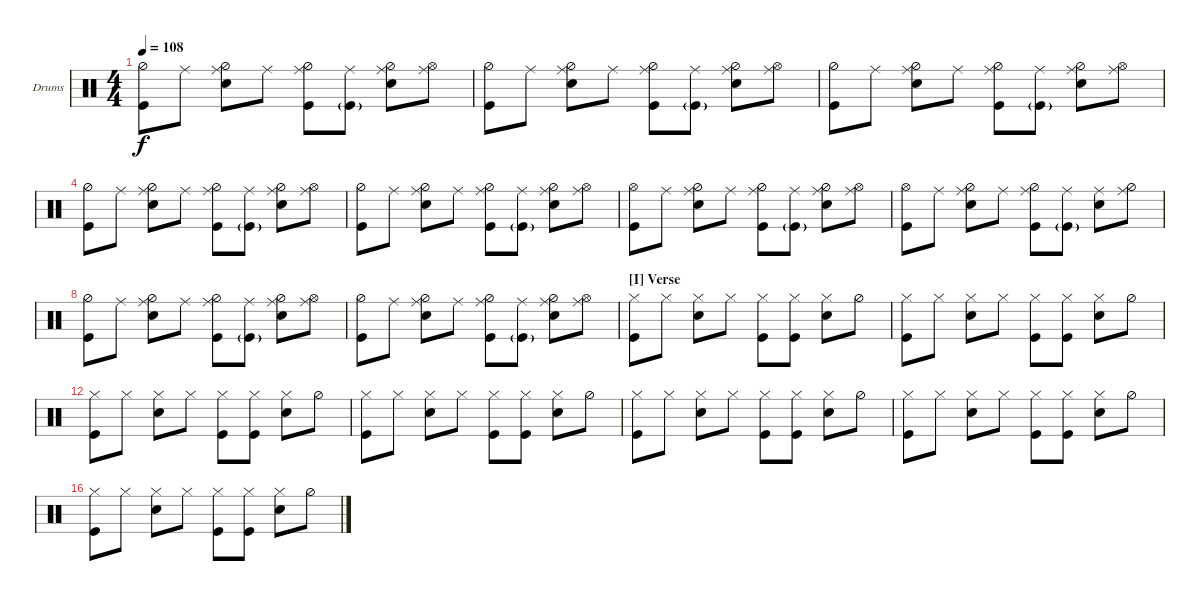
\defaultSystemsLayout 4
\bracketExtendMode nobrackets
\firstSystemTrackNameOrientation horizontal
\otherSystemsTrackNameOrientation horizontal
\defaultBarNumberDisplay FirstOfSystem
\track ("Drumkit" "Drums") {instrument percussion}
\staff {score}
\articulation defaults
\ts (4 4)
\tempo 108
\clef neutral
\ks c
("Kick (hit)" "Hi-Hat (half)").8{dy f} "Ride (middle)".8 ("Snare (hit) 2" "Hi-Hat (half)" "Ride (middle)").8 "Ride (middle)".8 ("Kick (hit)" "Hi-Hat (half)" "Ride (middle)").8 ("Kick (hit)"{g} "Ride (middle)").8 ("Snare (hit) 2" "Hi-Hat (half)" "Ride (middle)").8 ("Hi-Hat (open)" "Ride (middle)").8 |
("Kick (hit)" "Hi-Hat (half)").8 "Ride (middle)".8 ("Snare (hit) 2" "Hi-Hat (half)" "Ride (middle)").8 "Ride (middle)".8 ("Kick (hit)" "Hi-Hat (half)" "Ride (middle)").8 ("Kick (hit)"{g} "Ride (middle)").8 ("Snare (hit) 2" "Hi-Hat (half)" "Ride (middle)").8 ("Hi-Hat (open)" "Ride (middle)").8 |
("Kick (hit)" "Hi-Hat (half)").8 "Ride (middle)".8 ("Snare (hit) 2" "Hi-Hat (half)" "Ride (middle)").8 "Ride (middle)".8 ("Kick (hit)" "Hi-Hat (half)" "Ride (middle)").8 ("Kick (hit)"{g} "Ride (middle)").8 ("Snare (hit) 2" "Hi-Hat (half)" "Ride (middle)").8 ("Hi-Hat (open)" "Ride (middle)").8 |
("Kick (hit)" "Hi-Hat (half)").8 "Ride (middle)".8 ("Snare (hit) 2" "Hi-Hat (half)" "Ride (middle)").8 "Ride (middle)".8 ("Kick (hit)" "Hi-Hat (half)" "Ride (middle)").8 ("Kick (hit)"{g} "Ride (middle)").8 ("Snare (hit) 2" "Hi-Hat (half)" "Ride (middle)").8 ("Hi-Hat (open)" "Ride (middle)").8 |
("Kick (hit)" "Hi-Hat (half)").8 "Ride (middle)".8 ("Snare (hit) 2" "Hi-Hat (half)" "Ride (middle)").8 "Ride (middle)".8 ("Kick (hit)" "Hi-Hat (half)" "Ride (middle)").8 ("Kick (hit)"{g} "Ride (middle)").8 ("Snare (hit) 2" "Hi-Hat (half)" "Ride (middle)").8 ("Hi-Hat (open)" "Ride (middle)").8 |
("Kick (hit)" "Hi-Hat (open)").8 "Ride (middle)".8 ("Snare (hit) 2" "Hi-Hat (half)" "Ride (middle)").8 "Ride (middle)".8 ("Kick (hit)" "Hi-Hat (half)" "Ride (middle)").8 ("Kick (hit)"{g} "Ride (middle)").8 ("Snare (hit) 2" "Hi-Hat (half)" "Ride (middle)").8 ("Hi-Hat (open)" "Ride (middle)").8 |
("Kick (hit)" "Hi-Hat (open)").8 "Ride (middle)".8 ("Snare (hit) 2" "Hi-Hat (half)" "Ride (middle)").8 "Ride (middle)".8 ("Kick (hit)" "Hi-Hat (half)" "Ride (middle)").8 ("Kick (hit)"{g} "Ride (middle)").8 ("Snare (hit) 2" "Ride (middle)").8 ("Hi-Hat (half)" "Ride (middle)").8 |
("Kick (hit)" "Hi-Hat (half)").8 "Ride (middle)".8 ("Snare (hit) 2" "Hi-Hat (half)" "Ride (middle)").8 "Ride (middle)".8 ("Kick (hit)" "Hi-Hat (half)" "Ride (middle)").8 ("Kick (hit)"{g} "Ride (middle)").8 ("Snare (hit) 2" "Hi-Hat (half)" "Ride (middle)").8 ("Hi-Hat (open)" "Ride (middle)").8 |
("Kick (hit)" "Hi-Hat (half)").8 "Ride (middle)".8 ("Snare (hit) 2" "Hi-Hat (half)" "Ride (middle)").8 "Ride (middle)".8 ("Kick (hit)" "Hi-Hat (half)" "Ride (middle)").8 ("Kick (hit)"{g} "Ride (middle)").8 ("Snare (hit) 2" "Hi-Hat (half)" "Ride (middle)").8 ("Hi-Hat (open)" "Ride (middle)").8 |
\section ("I" "Verse")
("Kick (hit)" "Hi-Hat (closed)").8 "Hi-Hat (closed)".8 ("Snare (hit) 2" "Hi-Hat (closed)").8 "Hi-Hat (closed)".8 ("Kick (hit)" "Hi-Hat (closed)").8 ("Hi-Hat (closed)" "Kick (hit)").8 ("Snare (hit) 2" "Hi-Hat (closed)").8 "Hi-Hat (half)".8 |
("Kick (hit)" "Hi-Hat (closed)").8 "Hi-Hat (closed)".8 ("Snare (hit) 2" "Hi-Hat (closed)").8 "Hi-Hat (closed)".8 ("Kick (hit)" "Hi-Hat (closed)").8 ("Hi-Hat (closed)" "Kick (hit)").8 ("Snare (hit) 2" "Hi-Hat (closed)").8 "Hi-Hat (half)".8 |
("Kick (hit)" "Hi-Hat (closed)").8 "Hi-Hat (closed)".8 ("Snare (hit) 2" "Hi-Hat (closed)").8 "Hi-Hat (closed)".8 ("Hi-Hat (closed)" "Kick (hit)").8 ("Hi-Hat (closed)" "Kick (hit)").8 ("Snare (hit) 2" "Hi-Hat (closed)").8 "Hi-Hat (half)".8 |
("Kick (hit)" "Hi-Hat (closed)").8 "Hi-Hat (closed)".8 ("Snare (hit) 2" "Hi-Hat (closed)").8 "Hi-Hat (closed)".8 ("Kick (hit)" "Hi-Hat (closed)").8 ("Hi-Hat (closed)" "Kick (hit)").8 ("Snare (hit) 2" "Hi-Hat (closed)").8 "Hi-Hat (half)".8 |
("Kick (hit)" "Hi-Hat (closed)").8 "Hi-Hat (closed)".8 ("Snare (hit) 2" "Hi-Hat (closed)").8 "Hi-Hat (closed)".8 ("Hi-Hat (closed)" "Kick (hit)").8 ("Hi-Hat (closed)" "Kick (hit)").8 ("Snare (hit) 2" "Hi-Hat (closed)").8 "Hi-Hat (half)".8 |
("Kick (hit)" "Hi-Hat (closed)").8 "Hi-Hat (closed)".8 ("Snare (hit) 2" "Hi-Hat (closed)").8 "Hi-Hat (closed)".8 ("Kick (hit)" "Hi-Hat (closed)").8 ("Hi-Hat (closed)" "Kick (hit)").8 ("Snare (hit) 2" "Hi-Hat (closed)").8 "Hi-Hat (half)".8 |
("Kick (hit)" "Hi-Hat (closed)").8 "Hi-Hat (closed)".8 ("Snare (hit) 2" "Hi-Hat (closed)").8 "Hi-Hat (closed)".8 ("Hi-Hat (closed)" "Kick (hit)").8 ("Hi-Hat (closed)" "Kick (hit)").8 ("Snare (hit) 2" "Hi-Hat (closed)").8 "Hi-Hat (half)".8
